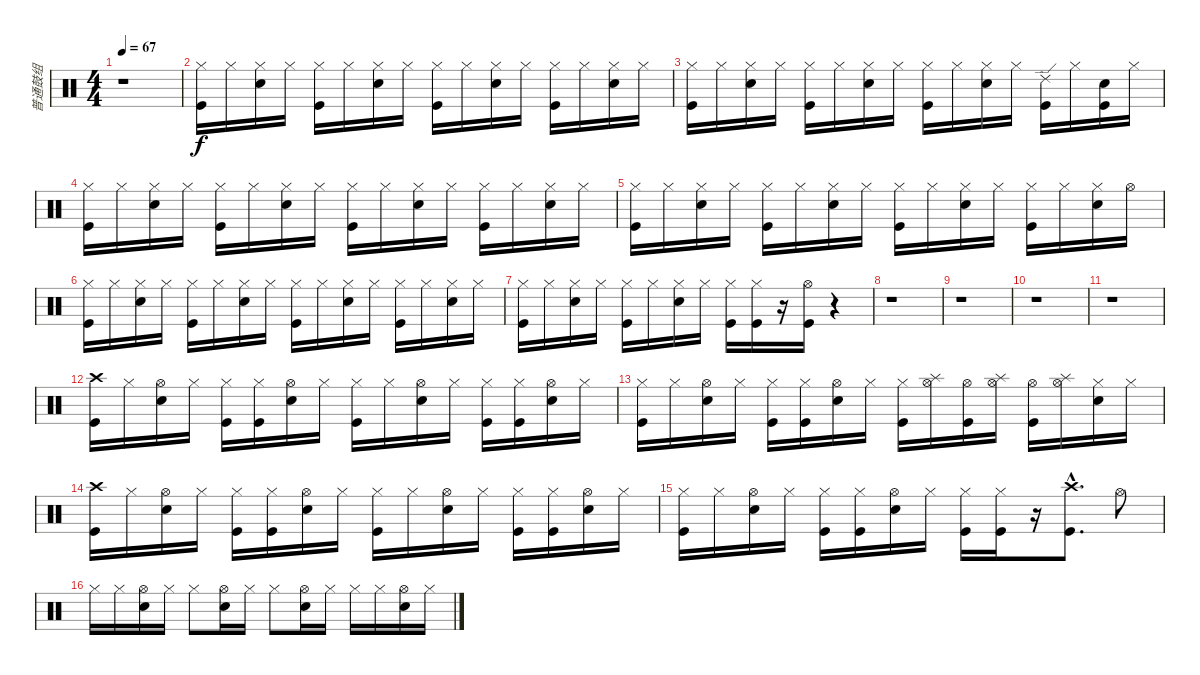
\track ("普通鼓组" "普通鼓组") {instrument percussion}
\staff {score}
\articulation defaults
\ts (4 4)
\tempo 67
\clef neutral
\ks c
r.1{dy f} |
("Hi-Hat (closed)" "Kick (hit)").16 "Hi-Hat (closed)".16 ("Hi-Hat (closed)" "Metronome (bell)").16 "Hi-Hat (closed)".16 ("Hi-Hat (closed)" "Kick (hit)").16 "Hi-Hat (closed)".16 ("Hi-Hat (closed)" "Metronome (bell)").16 "Hi-Hat (closed)".16 ("Hi-Hat (closed)" "Kick (hit)").16 "Hi-Hat (closed)".16 ("Hi-Hat (closed)" "Metronome (bell)").16 "Hi-Hat (closed)".16 ("Hi-Hat (closed)" "Kick (hit)").16 "Hi-Hat (closed)".16 ("Hi-Hat (closed)" "Metronome (bell)").16 "Hi-Hat (closed)".16 |
("Hi-Hat (closed)" "Kick (hit)").16 "Hi-Hat (closed)".16 ("Hi-Hat (closed)" "Metronome (bell)").16 "Hi-Hat (closed)".16 ("Hi-Hat (closed)" "Kick (hit)").16 "Hi-Hat (closed)".16 ("Hi-Hat (closed)" "Metronome (bell)").16 "Hi-Hat (closed)".16 ("Hi-Hat (closed)" "Kick (hit)").16 "Hi-Hat (closed)".16 ("Hi-Hat (closed)" "Metronome (bell)").16 "Hi-Hat (closed)".16 ("Kick (hit)" "Ride (edge) 2").16 "Hi-Hat (closed)".16 ("Kick (hit)" "Metronome (bell)").16 "Hi-Hat (closed)".16 |
("Hi-Hat (closed)" "Kick (hit)").16 "Hi-Hat (closed)".16 ("Hi-Hat (closed)" "Metronome (bell)").16 "Hi-Hat (closed)".16 ("Hi-Hat (closed)" "Kick (hit)").16 "Hi-Hat (closed)".16 ("Hi-Hat (closed)" "Metronome (bell)").16 "Hi-Hat (closed)".16 ("Hi-Hat (closed)" "Kick (hit)").16 "Hi-Hat (closed)".16 ("Hi-Hat (closed)" "Metronome (bell)").16 "Hi-Hat (closed)".16 ("Hi-Hat (closed)" "Kick (hit)").16 "Hi-Hat (closed)".16 ("Hi-Hat (closed)" "Metronome (bell)").16 "Hi-Hat (closed)".16 |
("Hi-Hat (closed)" "Kick (hit)").16 "Hi-Hat (closed)".16 ("Hi-Hat (closed)" "Metronome (bell)").16 "Hi-Hat (closed)".16 ("Hi-Hat (closed)" "Kick (hit)").16 "Hi-Hat (closed)".16 ("Hi-Hat (closed)" "Metronome (bell)").16 "Hi-Hat (closed)".16 ("Hi-Hat (closed)" "Kick (hit)").16 "Hi-Hat (closed)".16 ("Hi-Hat (closed)" "Metronome (bell)").16 "Hi-Hat (closed)".16 ("Hi-Hat (closed)" "Kick (hit)").16 "Hi-Hat (closed)".16 ("Hi-Hat (closed)" "Metronome (bell)").16 "Hi-Hat (open)".16 |
("Hi-Hat (closed)" "Kick (hit)").16 "Hi-Hat (closed)".16 ("Hi-Hat (closed)" "Metronome (bell)").16 "Hi-Hat (closed)".16 ("Hi-Hat (closed)" "Kick (hit)").16 "Hi-Hat (closed)".16 ("Hi-Hat (closed)" "Metronome (bell)").16 "Hi-Hat (closed)".16 ("Hi-Hat (closed)" "Kick (hit)").16 "Hi-Hat (closed)".16 ("Hi-Hat (closed)" "Metronome (bell)").16 "Hi-Hat (closed)".16 ("Hi-Hat (closed)" "Kick (hit)").16 "Hi-Hat (closed)".16 ("Hi-Hat (closed)" "Metronome (bell)").16 "Hi-Hat (closed)".16 |
("Hi-Hat (closed)" "Kick (hit)").16 "Hi-Hat (closed)".16 ("Hi-Hat (closed)" "Metronome (bell)").16 "Hi-Hat (closed)".16 ("Hi-Hat (closed)" "Kick (hit)").16 "Hi-Hat (closed)".16 ("Hi-Hat (closed)" "Metronome (bell)").16 "Hi-Hat (closed)".16 ("Hi-Hat (closed)" "Kick (hit)").16 ("Hi-Hat (closed)" "Kick (hit)").16 r.16 ("Hi-Hat (open)" "Kick (hit)").16 r.4 |
r.1 |
r.1 |
r.1 |
r.1 |
("Crash high (hit)" "Kick (hit)").16 "Hi-Hat (closed)".16 ("Hi-Hat (open)" "Snare (hit) 2").16 "Hi-Hat (closed)".16 ("Hi-Hat (closed)" "Kick (hit)").16 ("Hi-Hat (closed)" "Kick (hit)").16 ("Hi-Hat (open)" "Snare (hit) 2").16 "Hi-Hat (closed)".16 ("Hi-Hat (closed)" "Kick (hit)").16 "Hi-Hat (closed)".16 ("Hi-Hat (open)" "Snare (hit) 2").16 "Hi-Hat (closed)".16 ("Hi-Hat (closed)" "Kick (hit)").16 ("Hi-Hat (closed)" "Kick (hit)").16 ("Hi-Hat (open)" "Snare (hit) 2").16 "Hi-Hat (closed)".16 |
("Hi-Hat (closed)" "Kick (hit)").16 "Hi-Hat (closed)".16 ("Hi-Hat (open)" "Snare (hit) 2").16 "Hi-Hat (closed)".16 ("Hi-Hat (closed)" "Kick (hit)").16 ("Hi-Hat (closed)" "Kick (hit)").16 ("Hi-Hat (open)" "Snare (hit) 2").16 "Hi-Hat (closed)".16 ("Hi-Hat (closed)" "Kick (hit)").16 ("Hi-Hat (open)" "Splash (hit)").16 ("Hi-Hat (open)" "Kick (hit)").16 ("Hi-Hat (open)" "Splash (hit)").16 ("Hi-Hat (open)" "Kick (hit)").16 ("Hi-Hat (open)" "Splash (hit)").16 ("Hi-Hat (closed)" "Snare (hit) 2").16 "Hi-Hat (closed)".16 |
("Crash high (hit)" "Kick (hit)").16 "Hi-Hat (closed)".16 ("Hi-Hat (open)" "Snare (hit) 2").16 "Hi-Hat (closed)".16 ("Hi-Hat (closed)" "Kick (hit)").16 ("Hi-Hat (closed)" "Kick (hit)").16 ("Hi-Hat (open)" "Snare (hit) 2").16 "Hi-Hat (closed)".16 ("Hi-Hat (closed)" "Kick (hit)").16 "Hi-Hat (closed)".16 ("Hi-Hat (open)" "Snare (hit) 2").16 "Hi-Hat (closed)".16 ("Hi-Hat (closed)" "Kick (hit)").16 ("Hi-Hat (closed)" "Kick (hit)").16 ("Hi-Hat (open)" "Snare (hit) 2").16 "Hi-Hat (closed)".16 |
("Hi-Hat (closed)" "Kick (hit)").16 "Hi-Hat (closed)".16 ("Hi-Hat (open)" "Snare (hit) 2").16 "Hi-Hat (closed)".16 ("Hi-Hat (closed)" "Kick (hit)").16 ("Hi-Hat (closed)" "Kick (hit)").16 ("Hi-Hat (open)" "Snare (hit) 2").16 "Hi-Hat (closed)".16 ("Hi-Hat (closed)" "Kick (hit)").16 ("Hi-Hat (closed)" "Kick (hit)").16 r.16 ("Crash high (hit)"{hac} "Kick (hit)"{hac}).8{d} "Hi-Hat (open)".8 |
"Hi-Hat (closed)".16 "Hi-Hat (closed)".16 ("Hi-Hat (open)" "Metronome (bell)").16 "Hi-Hat (closed)".16 "Hi-Hat (closed)".8 ("Hi-Hat (open)" "Metronome (bell)").16 "Hi-Hat (closed)".16 "Hi-Hat (closed)".8 ("Hi-Hat (open)" "Metronome (bell)").16 "Hi-Hat (closed)".16 "Hi-Hat (closed)".16 "Hi-Hat (closed)".16 ("Hi-Hat (open)" "Metronome (bell)").16 "Hi-Hat (closed)".16
